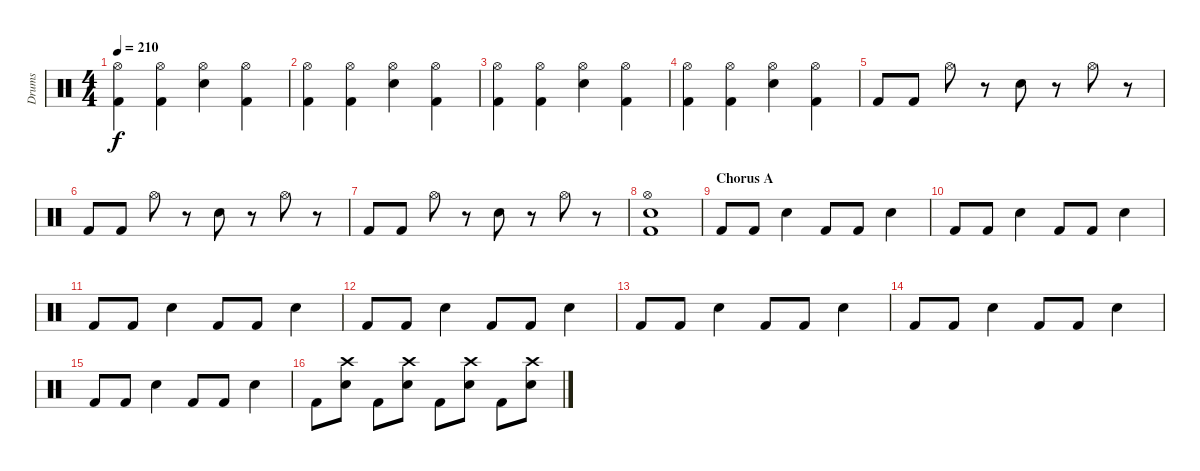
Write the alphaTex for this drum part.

\track ("Drums" "Drums") {instrument percussion}
\staff {score}
\articulation defaults
\ts (4 4)
\tempo 210
\clef neutral
\ks c
("Hi-Hat (open)" "Kick (hit) 2").4{dy f} ("Hi-Hat (open)" "Kick (hit) 2").4 ("Hi-Hat (open)" "Electric Snare (hit)").4 ("Hi-Hat (open)" "Kick (hit) 2").4 |
("Hi-Hat (open)" "Kick (hit) 2").4 ("Hi-Hat (open)" "Kick (hit) 2").4 ("Hi-Hat (open)" "Electric Snare (hit)").4 ("Hi-Hat (open)" "Kick (hit) 2").4 |
("Hi-Hat (open)" "Kick (hit) 2").4 ("Hi-Hat (open)" "Kick (hit) 2").4 ("Hi-Hat (open)" "Electric Snare (hit)").4 ("Hi-Hat (open)" "Kick (hit) 2").4 |
("Hi-Hat (open)" "Kick (hit) 2").4 ("Hi-Hat (open)" "Kick (hit) 2").4 ("Hi-Hat (open)" "Electric Snare (hit)").4 ("Hi-Hat (open)" "Kick (hit) 2").4 |
"Kick (hit) 2".8 "Kick (hit) 2".8 "Hi-Hat (open)".8 r.8 "Electric Snare (hit)".8 r.8 "Hi-Hat (open)".8 r.8 |
"Kick (hit) 2".8 "Kick (hit) 2".8 "Hi-Hat (open)".8 r.8 "Electric Snare (hit)".8 r.8 "Hi-Hat (open)".8 r.8 |
"Kick (hit) 2".8 "Kick (hit) 2".8 "Hi-Hat (open)".8 r.8 "Electric Snare (hit)".8 r.8 "Hi-Hat (open)".8 r.8 |
("Hi-Hat (open)" "Electric Snare (hit)" "Kick (hit) 2").1 |
\section ("" "Chorus A")
"Kick (hit) 2".8 "Kick (hit) 2".8 "Electric Snare (hit)".4 "Kick (hit) 2".8 "Kick (hit) 2".8 "Electric Snare (hit)".4 |
"Kick (hit) 2".8 "Kick (hit) 2".8 "Electric Snare (hit)".4 "Kick (hit) 2".8 "Kick (hit) 2".8 "Electric Snare (hit)".4 |
"Kick (hit) 2".8 "Kick (hit) 2".8 "Electric Snare (hit)".4 "Kick (hit) 2".8 "Kick (hit) 2".8 "Electric Snare (hit)".4 |
"Kick (hit) 2".8 "Kick (hit) 2".8 "Electric Snare (hit)".4 "Kick (hit) 2".8 "Kick (hit) 2".8 "Electric Snare (hit)".4 |
"Kick (hit) 2".8 "Kick (hit) 2".8 "Electric Snare (hit)".4 "Kick (hit) 2".8 "Kick (hit) 2".8 "Electric Snare (hit)".4 |
"Kick (hit) 2".8 "Kick (hit) 2".8 "Electric Snare (hit)".4 "Kick (hit) 2".8 "Kick (hit) 2".8 "Electric Snare (hit)".4 |
"Kick (hit) 2".8 "Kick (hit) 2".8 "Electric Snare (hit)".4 "Kick (hit) 2".8 "Kick (hit) 2".8 "Electric Snare (hit)".4 |
"Kick (hit) 2".8 ("Crash high (hit)" "Electric Snare (hit)").8 "Kick (hit) 2".8 ("Crash high (hit)" "Electric Snare (hit)").8 "Kick (hit) 2".8 ("Crash high (hit)" "Electric Snare (hit)").8 "Kick (hit) 2".8 ("Crash high (hit)" "Electric Snare (hit)").8
